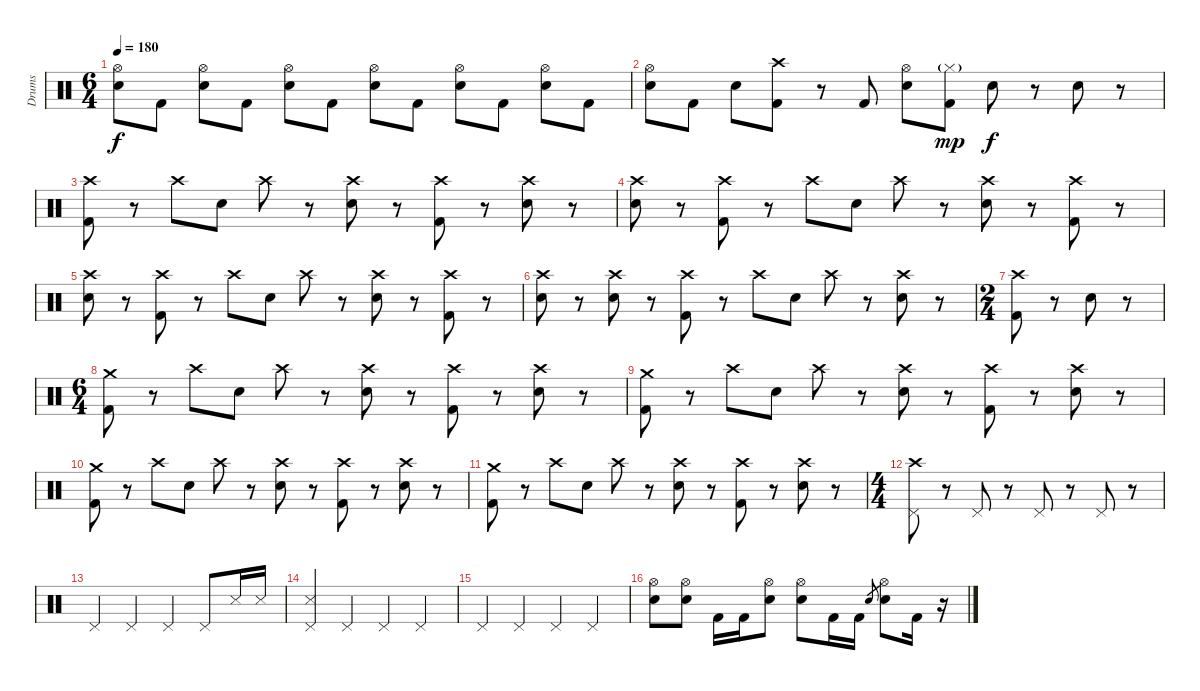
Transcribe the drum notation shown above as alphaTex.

\track ("Drums" "Drums") {instrument percussion}
\staff {score}
\articulation defaults
\ts (6 4)
\tempo 180
\clef neutral
\ks c
("Electric Snare (hit)" "Hi-Hat (open)").8{dy f} "Kick (hit) 2".8 ("Electric Snare (hit)" "Hi-Hat (open)").8 "Kick (hit) 2".8 ("Electric Snare (hit)" "Hi-Hat (open)").8 "Kick (hit) 2".8 ("Electric Snare (hit)" "Hi-Hat (open)").8 "Kick (hit) 2".8 ("Electric Snare (hit)" "Hi-Hat (open)").8 "Kick (hit) 2".8 ("Electric Snare (hit)" "Hi-Hat (open)").8 "Kick (hit) 2".8 |
("Electric Snare (hit)" "Hi-Hat (open)").8 "Kick (hit) 2".8 "Electric Snare (hit)".8 ("Kick (hit) 2" "Crash high (hit)").8 r.8 "Kick (hit) 2".8 ("Electric Snare (hit)" "Hi-Hat (open)").8 ("Kick (hit) 2" "Hi-Hat (closed)"{g}).8{dy mp} "Electric Snare (hit)".8{dy f} r.8 "Electric Snare (hit)".8 r.8 |
("Kick (hit) 2" "Crash high (hit)").8 r.8 "Crash high (hit)".8 "Electric Snare (hit)".8 "Crash high (hit)".8 r.8 ("Electric Snare (hit)" "Crash high (hit)").8 r.8 ("Kick (hit) 2" "Crash high (hit)").8 r.8 ("Electric Snare (hit)" "Crash high (hit)").8 r.8 |
("Electric Snare (hit)" "Crash high (hit)").8 r.8 ("Kick (hit) 2" "Crash high (hit)").8 r.8 "Crash high (hit)".8 "Electric Snare (hit)".8 "Crash high (hit)".8 r.8 ("Electric Snare (hit)" "Crash high (hit)").8 r.8 ("Kick (hit) 2" "Crash high (hit)").8 r.8 |
("Electric Snare (hit)" "Crash high (hit)").8 r.8 ("Kick (hit) 2" "Crash high (hit)").8 r.8 "Crash high (hit)".8 "Electric Snare (hit)".8 "Crash high (hit)".8 r.8 ("Electric Snare (hit)" "Crash high (hit)").8 r.8 ("Kick (hit) 2" "Crash high (hit)").8 r.8 |
("Electric Snare (hit)" "Crash high (hit)").8 r.8 ("Electric Snare (hit)" "Crash high (hit)").8 r.8 ("Kick (hit) 2" "Crash high (hit)").8 r.8 "Crash high (hit)".8 "Electric Snare (hit)".8 "Crash high (hit)".8 r.8 ("Electric Snare (hit)" "Crash high (hit)").8 r.8 |
\ts (2 4)
("Crash high (hit)" "Kick (hit) 2").8 r.8 "Electric Snare (hit)".8 r.8 |
\ts (6 4)
("Kick (hit) 2" "Crash medium (hit)").8 r.8 "Crash high (hit)".8 "Electric Snare (hit)".8 "Crash high (hit)".8 r.8 ("Electric Snare (hit)" "Crash high (hit)").8 r.8 ("Kick (hit) 2" "Crash high (hit)").8 r.8 ("Electric Snare (hit)" "Crash high (hit)").8 r.8 |
("Kick (hit) 2" "Crash medium (hit)").8 r.8 "Crash high (hit)".8 "Electric Snare (hit)".8 "Crash high (hit)".8 r.8 ("Electric Snare (hit)" "Crash high (hit)").8 r.8 ("Kick (hit) 2" "Crash high (hit)").8 r.8 ("Electric Snare (hit)" "Crash high (hit)").8 r.8 |
("Kick (hit) 2" "Crash medium (hit)").8 r.8 "Crash high (hit)".8 "Electric Snare (hit)".8 "Crash high (hit)".8 r.8 ("Electric Snare (hit)" "Crash high (hit)").8 r.8 ("Kick (hit) 2" "Crash high (hit)").8 r.8 ("Electric Snare (hit)" "Crash high (hit)").8 r.8 |
("Kick (hit) 2" "Crash medium (hit)").8 r.8 "Crash high (hit)".8 "Electric Snare (hit)".8 "Crash high (hit)".8 r.8 ("Electric Snare (hit)" "Crash high (hit)").8 r.8 ("Kick (hit) 2" "Crash high (hit)").8 r.8 ("Electric Snare (hit)" "Crash high (hit)").8 r.8 |
\ts (4 4)
("Crash high (hit)" "Pedal Hi-Hat (hit)").8 r.8 "Pedal Hi-Hat (hit)".8 r.8 "Pedal Hi-Hat (hit)".8 r.8 "Pedal Hi-Hat (hit)".8 r.8 |
"Pedal Hi-Hat (hit)".4 "Pedal Hi-Hat (hit)".4 "Pedal Hi-Hat (hit)".4 "Pedal Hi-Hat (hit)".8 "Snare (side stick) 3".16 "Snare (side stick) 3".16 |
("Snare (side stick) 3" "Pedal Hi-Hat (hit)").4 "Pedal Hi-Hat (hit)".4 "Pedal Hi-Hat (hit)".4 "Pedal Hi-Hat (hit)".4 |
"Pedal Hi-Hat (hit)".4 "Pedal Hi-Hat (hit)".4 "Pedal Hi-Hat (hit)".4 "Pedal Hi-Hat (hit)".4 |
("Electric Snare (hit)" "Hi-Hat (open)").8 ("Electric Snare (hit)" "Hi-Hat (open)").8 "Kick (hit) 2".16 "Kick (hit) 2".16 ("Electric Snare (hit)" "Hi-Hat (open)").8 ("Electric Snare (hit)" "Hi-Hat (open)").8 "Kick (hit) 2".16 "Kick (hit) 2".16 "Electric Snare (hit)".8{gr} ("Electric Snare (hit)" "Hi-Hat (open)").8 "Kick (hit) 2".16 r.16
